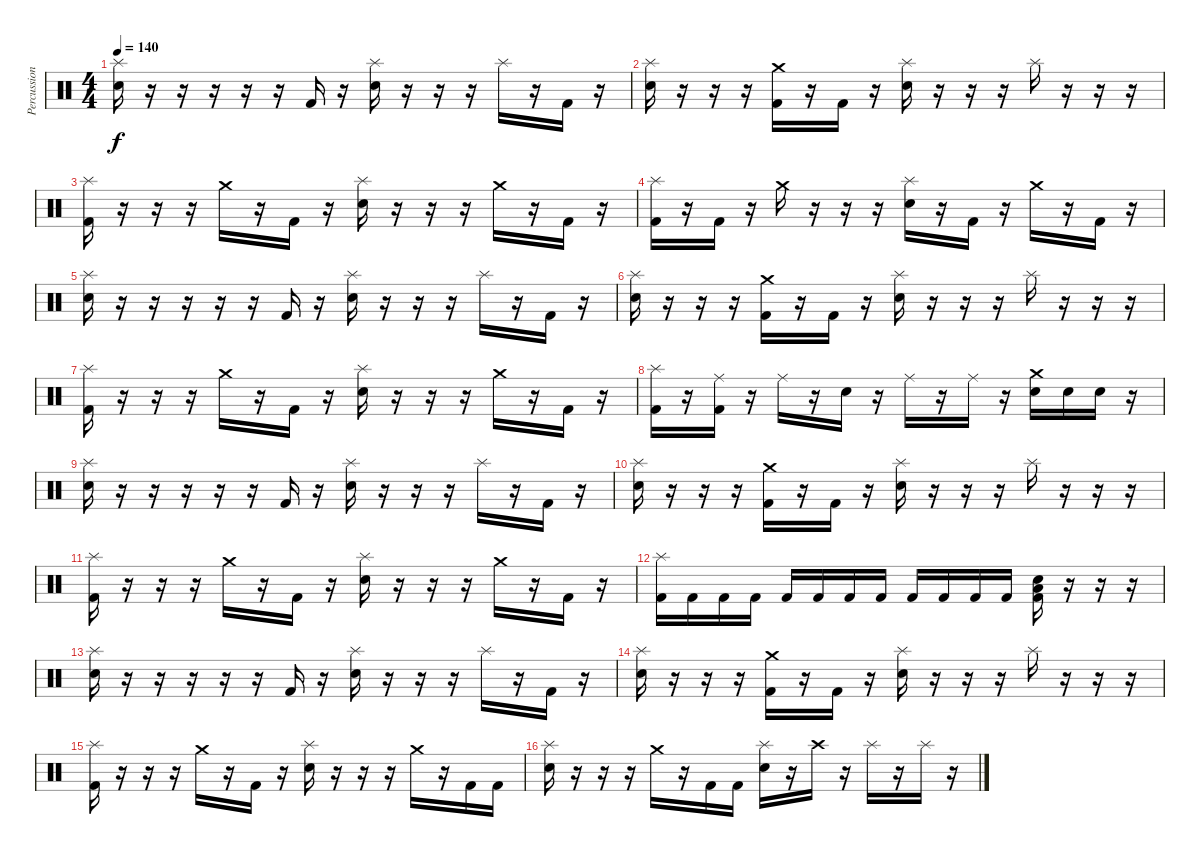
\track ("Percussion" "Percussion") {instrument percussion}
\staff {score}
\articulation defaults
\ts (4 4)
\tempo 140
\clef neutral
\ks c
("Splash (hit)" "Electric Snare (hit)").16{dy f} r.16 r.16 r.16 r.16 r.16 "Kick (hit) 2".16 r.16 ("Splash (hit)" "Electric Snare (hit)").16 r.16 r.16 r.16 "Splash (hit)".16 r.16 "Kick (hit) 2".16 r.16 |
("Splash (hit)" "Electric Snare (hit)").16 r.16 r.16 r.16 ("Crash medium (hit)" "Kick (hit) 2").16 r.16 "Kick (hit) 2".16 r.16 ("Splash (hit)" "Electric Snare (hit)").16 r.16 r.16 r.16 "Splash (hit)".16 r.16 r.16 r.16 |
("Splash (hit)" "Kick (hit) 2").16 r.16 r.16 r.16 "Crash medium (hit)".16 r.16 "Kick (hit) 2".16 r.16 ("Splash (hit)" "Electric Snare (hit)").16 r.16 r.16 r.16 "Crash medium (hit)".16 r.16 "Kick (hit) 2".16 r.16 |
("Splash (hit)" "Kick (hit) 2").16 r.16 "Kick (hit) 2".16 r.16 "Crash medium (hit)".16 r.16 r.16 r.16 ("Splash (hit)" "Electric Snare (hit)").16 r.16 "Kick (hit) 2".16 r.16 "Crash medium (hit)".16 r.16 "Kick (hit) 2".16 r.16 |
("Splash (hit)" "Electric Snare (hit)").16 r.16 r.16 r.16 r.16 r.16 "Kick (hit) 2".16 r.16 ("Splash (hit)" "Electric Snare (hit)").16 r.16 r.16 r.16 "Splash (hit)".16 r.16 "Kick (hit) 2".16 r.16 |
("Splash (hit)" "Electric Snare (hit)").16 r.16 r.16 r.16 ("Crash medium (hit)" "Kick (hit) 2").16 r.16 "Kick (hit) 2".16 r.16 ("Splash (hit)" "Electric Snare (hit)").16 r.16 r.16 r.16 "Splash (hit)".16 r.16 r.16 r.16 |
("Splash (hit)" "Kick (hit) 2").16 r.16 r.16 r.16 "Crash medium (hit)".16 r.16 "Kick (hit) 2".16 r.16 ("Splash (hit)" "Electric Snare (hit)").16 r.16 r.16 r.16 "Crash medium (hit)".16 r.16 "Kick (hit) 2".16 r.16 |
("Splash (hit)" "Kick (hit) 2").16 r.16 ("Ride (middle)" "Kick (hit) 2").16 r.16 "Ride (middle)".16 r.16 "Electric Snare (hit)".16 r.16 "Ride (middle)".16 r.16 "Ride (middle)".16 r.16 ("Crash medium (hit)" "Electric Snare (hit)").16 "Electric Snare (hit)".16 "Electric Snare (hit)".16 r.16 |
("Splash (hit)" "Electric Snare (hit)").16 r.16 r.16 r.16 r.16 r.16 "Kick (hit) 2".16 r.16 ("Splash (hit)" "Electric Snare (hit)").16 r.16 r.16 r.16 "Splash (hit)".16 r.16 "Kick (hit) 2".16 r.16 |
("Splash (hit)" "Electric Snare (hit)").16 r.16 r.16 r.16 ("Crash medium (hit)" "Kick (hit) 2").16 r.16 "Kick (hit) 2".16 r.16 ("Splash (hit)" "Electric Snare (hit)").16 r.16 r.16 r.16 "Splash (hit)".16 r.16 r.16 r.16 |
("Splash (hit)" "Kick (hit) 2").16 r.16 r.16 r.16 "Crash medium (hit)".16 r.16 "Kick (hit) 2".16 r.16 ("Splash (hit)" "Electric Snare (hit)").16 r.16 r.16 r.16 "Crash medium (hit)".16 r.16 "Kick (hit) 2".16 r.16 |
("Splash (hit)" "Kick (hit) 2").16 "Kick (hit) 2".16 "Kick (hit) 2".16 "Kick (hit) 2".16 "Kick (hit) 2".16 "Kick (hit) 2".16 "Kick (hit) 2".16 "Kick (hit) 2".16 "Kick (hit) 2".16 "Kick (hit) 2".16 "Kick (hit) 2".16 "Kick (hit) 2".16 ("Low Floor Tom (hit)" "Electric Snare (hit)" "Kick (hit) 2").16 r.16 r.16 r.16 |
("Splash (hit)" "Electric Snare (hit)").16 r.16 r.16 r.16 r.16 r.16 "Kick (hit) 2".16 r.16 ("Splash (hit)" "Electric Snare (hit)").16 r.16 r.16 r.16 "Splash (hit)".16 r.16 "Kick (hit) 2".16 r.16 |
("Splash (hit)" "Electric Snare (hit)").16 r.16 r.16 r.16 ("Crash medium (hit)" "Kick (hit) 2").16 r.16 "Kick (hit) 2".16 r.16 ("Splash (hit)" "Electric Snare (hit)").16 r.16 r.16 r.16 "Splash (hit)".16 r.16 r.16 r.16 |
("Splash (hit)" "Kick (hit) 2").16 r.16 r.16 r.16 "Crash medium (hit)".16 r.16 "Kick (hit) 2".16 r.16 ("Splash (hit)" "Electric Snare (hit)").16 r.16 r.16 r.16 "Crash medium (hit)".16 r.16 "Kick (hit) 2".16 "Kick (hit) 2".16 |
("Splash (hit)" "Electric Snare (hit)").16 r.16 r.16 r.16 "Crash medium (hit)".16 r.16 "Kick (hit) 2".16 "Kick (hit) 2".16 ("Splash (hit)" "Electric Snare (hit)").16 r.16 "Crash high (hit)".16 r.16 "Splash (hit)".16 r.16 "Splash (hit)".16 r.16
